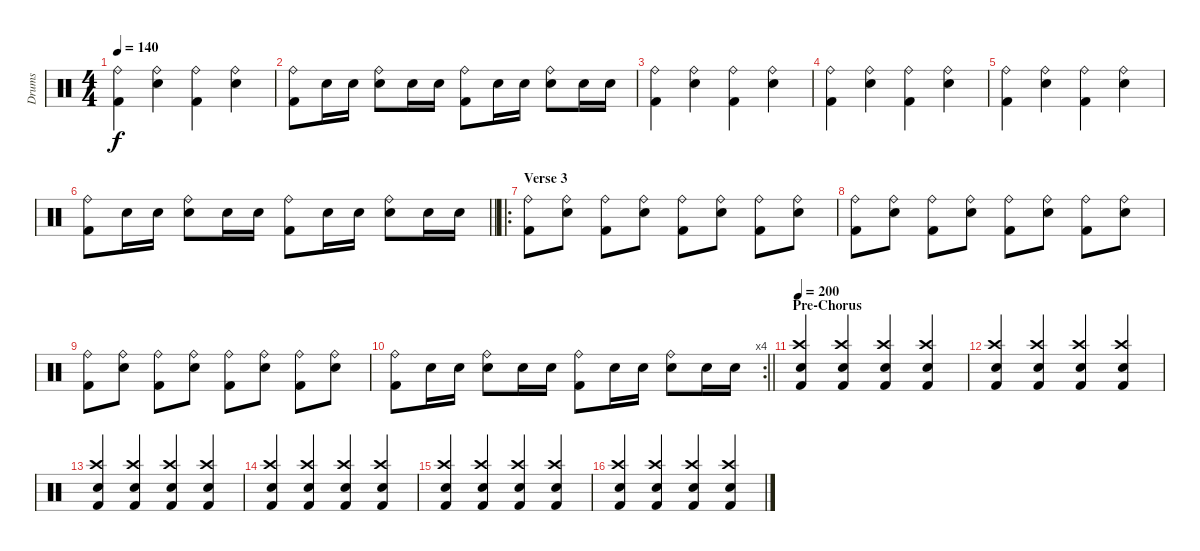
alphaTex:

\track ("Drums" "Drums") {instrument percussion}
\staff {score}
\articulation defaults
\ts (4 4)
\tempo 140
\clef neutral
\ks c
("Ride (bell)" "Kick (hit) 2").4{dy f} ("Ride (bell)" "Snare (hit) 2").4 ("Ride (bell)" "Kick (hit) 2").4 ("Ride (bell)" "Snare (hit) 2").4 |
("Ride (bell)" "Kick (hit) 2").8 "Snare (hit) 2".16 "Snare (hit) 2".16 ("Ride (bell)" "Snare (hit) 2").8 "Snare (hit) 2".16 "Snare (hit) 2".16 ("Ride (bell)" "Kick (hit) 2").8 "Snare (hit) 2".16 "Snare (hit) 2".16 ("Ride (bell)" "Snare (hit) 2").8 "Snare (hit) 2".16 "Snare (hit) 2".16 |
("Ride (bell)" "Kick (hit) 2").4 ("Ride (bell)" "Snare (hit) 2").4 ("Ride (bell)" "Kick (hit) 2").4 ("Ride (bell)" "Snare (hit) 2").4 |
("Ride (bell)" "Kick (hit) 2").4 ("Ride (bell)" "Snare (hit) 2").4 ("Ride (bell)" "Kick (hit) 2").4 ("Ride (bell)" "Snare (hit) 2").4 |
("Ride (bell)" "Kick (hit) 2").4 ("Ride (bell)" "Snare (hit) 2").4 ("Ride (bell)" "Kick (hit) 2").4 ("Ride (bell)" "Snare (hit) 2").4 |
\barLineRight lightlight
("Ride (bell)" "Kick (hit) 2").8 "Snare (hit) 2".16 "Snare (hit) 2".16 ("Ride (bell)" "Snare (hit) 2").8 "Snare (hit) 2".16 "Snare (hit) 2".16 ("Ride (bell)" "Kick (hit) 2").8 "Snare (hit) 2".16 "Snare (hit) 2".16 ("Ride (bell)" "Snare (hit) 2").8 "Snare (hit) 2".16 "Snare (hit) 2".16 |
\ro
\section ("" "Verse 3")
("Ride (bell)" "Kick (hit) 2").8 ("Ride (bell)" "Snare (hit) 2").8 ("Ride (bell)" "Kick (hit) 2").8 ("Ride (bell)" "Snare (hit) 2").8 ("Ride (bell)" "Kick (hit) 2").8 ("Ride (bell)" "Snare (hit) 2").8 ("Ride (bell)" "Kick (hit) 2").8 ("Ride (bell)" "Snare (hit) 2").8 |
("Ride (bell)" "Kick (hit) 2").8 ("Ride (bell)" "Snare (hit) 2").8 ("Ride (bell)" "Kick (hit) 2").8 ("Ride (bell)" "Snare (hit) 2").8 ("Ride (bell)" "Kick (hit) 2").8 ("Ride (bell)" "Snare (hit) 2").8 ("Ride (bell)" "Kick (hit) 2").8 ("Ride (bell)" "Snare (hit) 2").8 |
("Ride (bell)" "Kick (hit) 2").8 ("Ride (bell)" "Snare (hit) 2").8 ("Ride (bell)" "Kick (hit) 2").8 ("Ride (bell)" "Snare (hit) 2").8 ("Ride (bell)" "Kick (hit) 2").8 ("Ride (bell)" "Snare (hit) 2").8 ("Ride (bell)" "Kick (hit) 2").8 ("Ride (bell)" "Snare (hit) 2").8 |
\rc 4
\barLineRight lightlight
("Ride (bell)" "Kick (hit) 2").8 "Snare (hit) 2".16 "Snare (hit) 2".16 ("Ride (bell)" "Snare (hit) 2").8 "Snare (hit) 2".16 "Snare (hit) 2".16 ("Ride (bell)" "Kick (hit) 2").8 "Snare (hit) 2".16 "Snare (hit) 2".16 ("Ride (bell)" "Snare (hit) 2").8 "Snare (hit) 2".16 "Snare (hit) 2".16 |
\section ("" "Pre-Chorus")
\tempo 200
("Crash high (hit)" "Electric Snare (hit)" "Kick (hit) 2").4 ("Crash high (hit)" "Electric Snare (hit)" "Kick (hit) 2").4 ("Crash high (hit)" "Electric Snare (hit)" "Kick (hit) 2").4 ("Crash high (hit)" "Electric Snare (hit)" "Kick (hit) 2").4 |
("Crash high (hit)" "Electric Snare (hit)" "Kick (hit) 2").4 ("Crash high (hit)" "Electric Snare (hit)" "Kick (hit) 2").4 ("Crash high (hit)" "Electric Snare (hit)" "Kick (hit) 2").4 ("Crash high (hit)" "Electric Snare (hit)" "Kick (hit) 2").4 |
("Crash high (hit)" "Electric Snare (hit)" "Kick (hit) 2").4 ("Crash high (hit)" "Electric Snare (hit)" "Kick (hit) 2").4 ("Crash high (hit)" "Electric Snare (hit)" "Kick (hit) 2").4 ("Crash high (hit)" "Electric Snare (hit)" "Kick (hit) 2").4 |
("Crash high (hit)" "Electric Snare (hit)" "Kick (hit) 2").4 ("Crash high (hit)" "Electric Snare (hit)" "Kick (hit) 2").4 ("Crash high (hit)" "Electric Snare (hit)" "Kick (hit) 2").4 ("Crash high (hit)" "Electric Snare (hit)" "Kick (hit) 2").4 |
("Crash high (hit)" "Electric Snare (hit)" "Kick (hit) 2").4 ("Crash high (hit)" "Electric Snare (hit)" "Kick (hit) 2").4 ("Crash high (hit)" "Electric Snare (hit)" "Kick (hit) 2").4 ("Crash high (hit)" "Electric Snare (hit)" "Kick (hit) 2").4 |
("Crash high (hit)" "Electric Snare (hit)" "Kick (hit) 2").4 ("Crash high (hit)" "Electric Snare (hit)" "Kick (hit) 2").4 ("Crash high (hit)" "Electric Snare (hit)" "Kick (hit) 2").4 ("Crash high (hit)" "Electric Snare (hit)" "Kick (hit) 2").4
